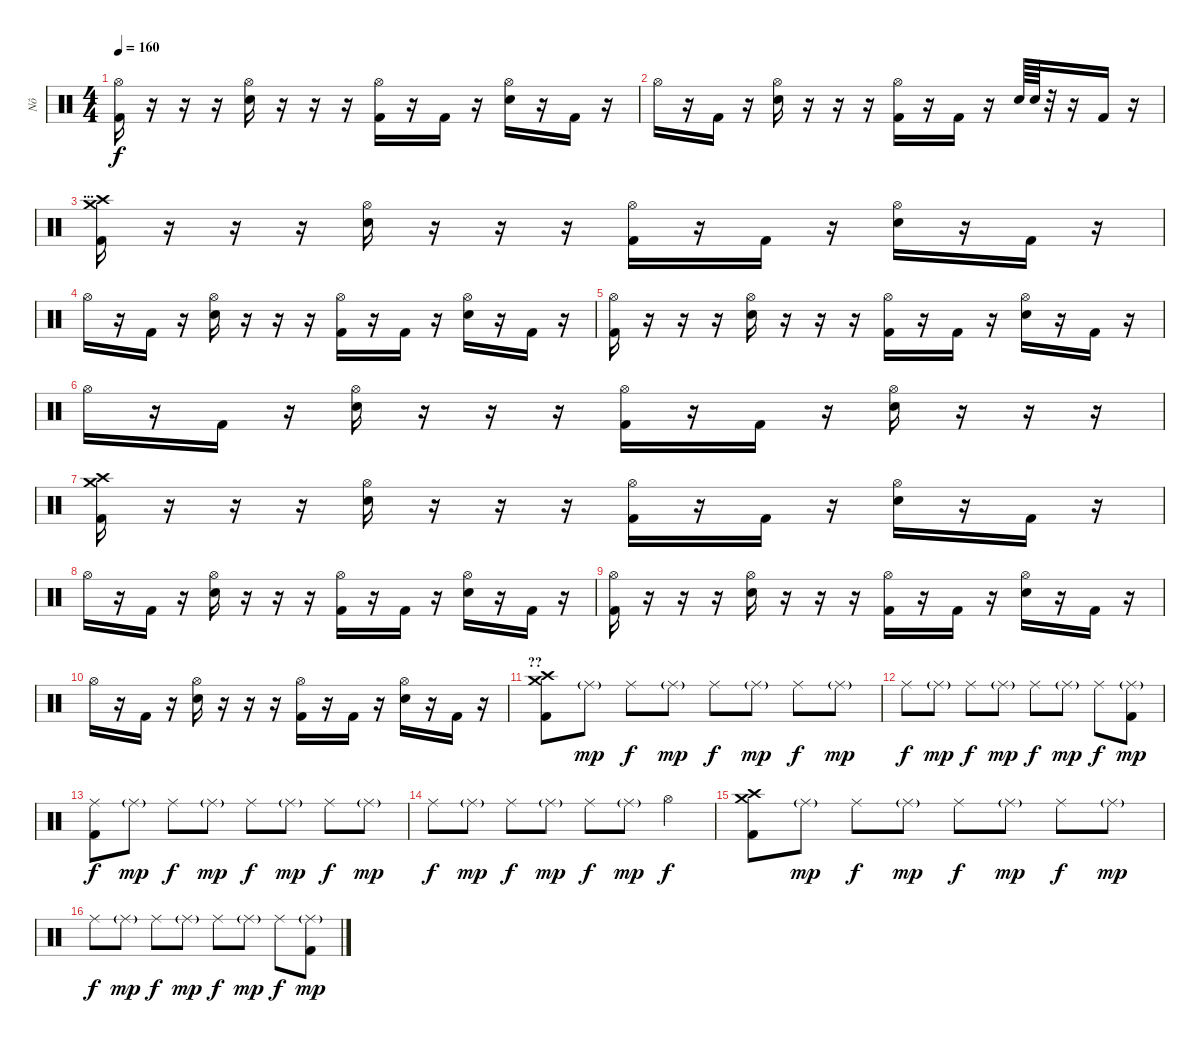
\track ("Nô" "Nô") {instrument percussion}
\staff {score}
\articulation defaults
\ts (4 4)
\tempo 160
\clef neutral
\ks c
("Hi-Hat (open)" "Kick (hit) 2").16{dy f} r.16 r.16 r.16 ("Hi-Hat (open)" "Electric Snare (hit)").16 r.16 r.16 r.16 ("Hi-Hat (open)" "Kick (hit) 2").16 r.16 "Kick (hit) 2".16 r.16 ("Hi-Hat (open)" "Electric Snare (hit)").16 r.16 "Kick (hit) 2".16 r.16 |
"Hi-Hat (open)".16 r.16 "Kick (hit) 2".16 r.16 ("Hi-Hat (open)" "Electric Snare (hit)").16 r.16 r.16 r.16 ("Hi-Hat (open)" "Kick (hit) 2").16 r.16 "Kick (hit) 2".16 r.16 "Electric Snare (hit)".64 "Electric Snare (hit)".64 r.32 r.16 "Kick (hit) 2".16 r.16 |
\section ("" "...")
("Crash high (hit)" "Crash medium (hit)" "Kick (hit) 2").16 r.16 r.16 r.16 ("Hi-Hat (open)" "Electric Snare (hit)").16 r.16 r.16 r.16 ("Hi-Hat (open)" "Kick (hit) 2").16 r.16 "Kick (hit) 2".16 r.16 ("Hi-Hat (open)" "Electric Snare (hit)").16 r.16 "Kick (hit) 2".16 r.16 |
"Hi-Hat (open)".16 r.16 "Kick (hit) 2".16 r.16 ("Hi-Hat (open)" "Electric Snare (hit)").16 r.16 r.16 r.16 ("Hi-Hat (open)" "Kick (hit) 2").16 r.16 "Kick (hit) 2".16 r.16 ("Hi-Hat (open)" "Electric Snare (hit)").16 r.16 "Kick (hit) 2".16 r.16 |
("Hi-Hat (open)" "Kick (hit) 2").16 r.16 r.16 r.16 ("Hi-Hat (open)" "Electric Snare (hit)").16 r.16 r.16 r.16 ("Hi-Hat (open)" "Kick (hit) 2").16 r.16 "Kick (hit) 2".16 r.16 ("Hi-Hat (open)" "Electric Snare (hit)").16 r.16 "Kick (hit) 2".16 r.16 |
"Hi-Hat (open)".16 r.16 "Kick (hit) 2".16 r.16 ("Hi-Hat (open)" "Electric Snare (hit)").16 r.16 r.16 r.16 ("Hi-Hat (open)" "Kick (hit) 2").16 r.16 "Kick (hit) 2".16 r.16 ("Hi-Hat (open)" "Electric Snare (hit)").16 r.16 r.16 r.16 |
("Crash high (hit)" "Crash medium (hit)" "Kick (hit) 2").16 r.16 r.16 r.16 ("Hi-Hat (open)" "Electric Snare (hit)").16 r.16 r.16 r.16 ("Hi-Hat (open)" "Kick (hit) 2").16 r.16 "Kick (hit) 2".16 r.16 ("Hi-Hat (open)" "Electric Snare (hit)").16 r.16 "Kick (hit) 2".16 r.16 |
"Hi-Hat (open)".16 r.16 "Kick (hit) 2".16 r.16 ("Hi-Hat (open)" "Electric Snare (hit)").16 r.16 r.16 r.16 ("Hi-Hat (open)" "Kick (hit) 2").16 r.16 "Kick (hit) 2".16 r.16 ("Hi-Hat (open)" "Electric Snare (hit)").16 r.16 "Kick (hit) 2".16 r.16 |
("Hi-Hat (open)" "Kick (hit) 2").16 r.16 r.16 r.16 ("Hi-Hat (open)" "Electric Snare (hit)").16 r.16 r.16 r.16 ("Hi-Hat (open)" "Kick (hit) 2").16 r.16 "Kick (hit) 2".16 r.16 ("Hi-Hat (open)" "Electric Snare (hit)").16 r.16 "Kick (hit) 2".16 r.16 |
"Hi-Hat (open)".16 r.16 "Kick (hit) 2".16 r.16 ("Hi-Hat (open)" "Electric Snare (hit)").16 r.16 r.16 r.16 ("Hi-Hat (open)" "Kick (hit) 2").16 r.16 "Kick (hit) 2".16 r.16 ("Hi-Hat (open)" "Electric Snare (hit)").16 r.16 "Kick (hit) 2".16 r.16 |
\section ("" "??")
("Crash high (hit)" "Crash medium (hit)" "Kick (hit) 2").8 "Ride (middle)"{g}.8{dy mp} "Ride (middle)".8{dy f} "Ride (middle)"{g}.8{dy mp} "Ride (middle)".8{dy f} "Ride (middle)"{g}.8{dy mp} "Ride (middle)".8{dy f} "Ride (middle)"{g}.8{dy mp} |
"Ride (middle)".8{dy f} "Ride (middle)"{g}.8{dy mp} "Ride (middle)".8{dy f} "Ride (middle)"{g}.8{dy mp} "Ride (middle)".8{dy f} "Ride (middle)"{g}.8{dy mp} "Ride (middle)".8{dy f} ("Ride (middle)"{g} "Kick (hit) 2").8{dy mp} |
("Ride (middle)" "Kick (hit) 2").8{dy f} "Ride (middle)"{g}.8{dy mp} "Ride (middle)".8{dy f} "Ride (middle)"{g}.8{dy mp} "Ride (middle)".8{dy f} "Ride (middle)"{g}.8{dy mp} "Ride (middle)".8{dy f} "Ride (middle)"{g}.8{dy mp} |
"Ride (middle)".8{dy f} "Ride (middle)"{g}.8{dy mp} "Ride (middle)".8{dy f} "Ride (middle)"{g}.8{dy mp} "Ride (middle)".8{dy f} "Ride (middle)"{g}.8{dy mp} "Hi-Hat (open)".4{dy f} |
("Crash high (hit)" "Crash medium (hit)" "Kick (hit) 2").8 "Ride (middle)"{g}.8{dy mp} "Ride (middle)".8{dy f} "Ride (middle)"{g}.8{dy mp} "Ride (middle)".8{dy f} "Ride (middle)"{g}.8{dy mp} "Ride (middle)".8{dy f} "Ride (middle)"{g}.8{dy mp} |
"Ride (middle)".8{dy f} "Ride (middle)"{g}.8{dy mp} "Ride (middle)".8{dy f} "Ride (middle)"{g}.8{dy mp} "Ride (middle)".8{dy f} "Ride (middle)"{g}.8{dy mp} "Ride (middle)".8{dy f} ("Ride (middle)"{g} "Kick (hit) 2").8{dy mp}
